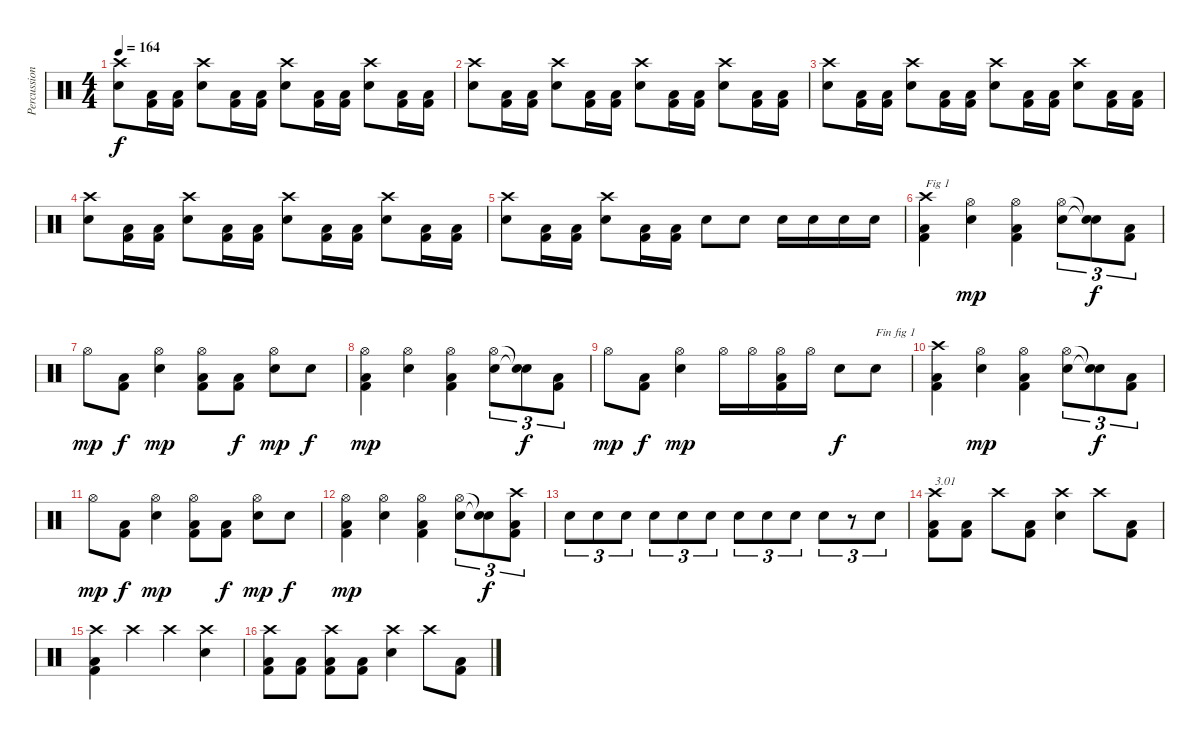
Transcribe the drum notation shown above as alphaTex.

\track ("Percussions" "Percussion") {instrument percussion}
\staff {score}
\articulation defaults
\ts (4 4)
\tempo 164
\clef neutral
\ks c
("Electric Snare (hit)" "Crash high (hit)").8{dy f} ("Kick (hit) 2" "Low Floor Tom (hit)").16 ("Kick (hit) 2" "Low Floor Tom (hit)").16 ("Electric Snare (hit)" "Crash high (hit)").8 ("Kick (hit) 2" "Low Floor Tom (hit)").16 ("Kick (hit) 2" "Low Floor Tom (hit)").16 ("Electric Snare (hit)" "Crash high (hit)").8 ("Kick (hit) 2" "Low Floor Tom (hit)").16 ("Kick (hit) 2" "Low Floor Tom (hit)").16 ("Electric Snare (hit)" "Crash high (hit)").8 ("Kick (hit) 2" "Low Floor Tom (hit)").16 ("Kick (hit) 2" "Low Floor Tom (hit)").16 |
("Electric Snare (hit)" "Crash high (hit)").8 ("Kick (hit) 2" "Low Floor Tom (hit)").16 ("Kick (hit) 2" "Low Floor Tom (hit)").16 ("Electric Snare (hit)" "Crash high (hit)").8 ("Kick (hit) 2" "Low Floor Tom (hit)").16 ("Kick (hit) 2" "Low Floor Tom (hit)").16 ("Electric Snare (hit)" "Crash high (hit)").8 ("Kick (hit) 2" "Low Floor Tom (hit)").16 ("Kick (hit) 2" "Low Floor Tom (hit)").16 ("Electric Snare (hit)" "Crash high (hit)").8 ("Kick (hit) 2" "Low Floor Tom (hit)").16 ("Kick (hit) 2" "Low Floor Tom (hit)").16 |
("Electric Snare (hit)" "Crash high (hit)").8 ("Kick (hit) 2" "Low Floor Tom (hit)").16 ("Kick (hit) 2" "Low Floor Tom (hit)").16 ("Electric Snare (hit)" "Crash high (hit)").8 ("Kick (hit) 2" "Low Floor Tom (hit)").16 ("Kick (hit) 2" "Low Floor Tom (hit)").16 ("Electric Snare (hit)" "Crash high (hit)").8 ("Kick (hit) 2" "Low Floor Tom (hit)").16 ("Kick (hit) 2" "Low Floor Tom (hit)").16 ("Electric Snare (hit)" "Crash high (hit)").8 ("Kick (hit) 2" "Low Floor Tom (hit)").16 ("Kick (hit) 2" "Low Floor Tom (hit)").16 |
("Electric Snare (hit)" "Crash high (hit)").8 ("Kick (hit) 2" "Low Floor Tom (hit)").16 ("Kick (hit) 2" "Low Floor Tom (hit)").16 ("Electric Snare (hit)" "Crash high (hit)").8 ("Kick (hit) 2" "Low Floor Tom (hit)").16 ("Kick (hit) 2" "Low Floor Tom (hit)").16 ("Electric Snare (hit)" "Crash high (hit)").8 ("Kick (hit) 2" "Low Floor Tom (hit)").16 ("Kick (hit) 2" "Low Floor Tom (hit)").16 ("Electric Snare (hit)" "Crash high (hit)").8 ("Kick (hit) 2" "Low Floor Tom (hit)").16 ("Kick (hit) 2" "Low Floor Tom (hit)").16 |
("Electric Snare (hit)" "Crash high (hit)").8 ("Kick (hit) 2" "Low Floor Tom (hit)").16 ("Kick (hit) 2" "Low Floor Tom (hit)").16 ("Electric Snare (hit)" "Crash high (hit)").8 ("Kick (hit) 2" "Low Floor Tom (hit)").16 ("Kick (hit) 2" "Low Floor Tom (hit)").16 "Electric Snare (hit)".8 "Electric Snare (hit)".8 "Electric Snare (hit)".16 "Electric Snare (hit)".16 "Electric Snare (hit)".16 "Electric Snare (hit)".16 |
("Kick (hit) 2" "Low Floor Tom (hit)" "Crash high (hit)").4{txt "Fig 1"} ("Electric Snare (hit)" "Hi-Hat (open)").4{dy mp} ("Kick (hit) 2" "Low Floor Tom (hit)" "Hi-Hat (open)").4 ("Electric Snare (hit)" "Hi-Hat (open)").8{tu (3 2)} ("Snare (hit)"{t} "Snare (hit)"{t}).8{tu (3 2) dy f} ("Kick (hit) 2" "Low Floor Tom (hit)").8{tu (3 2)} |
"Hi-Hat (open)".8{dy mp} ("Kick (hit) 2" "Low Floor Tom (hit)").8{dy f} ("Electric Snare (hit)" "Hi-Hat (open)").4{dy mp} ("Kick (hit) 2" "Low Floor Tom (hit)" "Hi-Hat (open)").8 ("Kick (hit) 2" "Low Floor Tom (hit)").8{dy f} ("Electric Snare (hit)" "Hi-Hat (open)").8{dy mp} "Electric Snare (hit)".8{dy f} |
("Kick (hit) 2" "Low Floor Tom (hit)" "Hi-Hat (open)").4{dy mp} ("Electric Snare (hit)" "Hi-Hat (open)").4 ("Kick (hit) 2" "Low Floor Tom (hit)" "Hi-Hat (open)").4 ("Electric Snare (hit)" "Hi-Hat (open)").8{tu (3 2)} ("Snare (hit)"{t} "Snare (hit)"{t}).8{tu (3 2) dy f} ("Kick (hit) 2" "Low Floor Tom (hit)").8{tu (3 2)} |
"Hi-Hat (open)".8{dy mp} ("Kick (hit) 2" "Low Floor Tom (hit)").8{dy f} ("Electric Snare (hit)" "Hi-Hat (open)").4{dy mp} "Hi-Hat (open)".16 "Hi-Hat (open)".16 ("Kick (hit) 2" "Low Floor Tom (hit)" "Hi-Hat (open)").16 "Hi-Hat (open)".16 "Electric Snare (hit)".8{dy f} "Electric Snare (hit)".8{txt "Fin fig 1"} |
("Kick (hit) 2" "Low Floor Tom (hit)" "Crash high (hit)").4 ("Electric Snare (hit)" "Hi-Hat (open)").4{dy mp} ("Kick (hit) 2" "Low Floor Tom (hit)" "Hi-Hat (open)").4 ("Electric Snare (hit)" "Hi-Hat (open)").8{tu (3 2)} ("Snare (hit)"{t} "Snare (hit)"{t}).8{tu (3 2) dy f} ("Kick (hit) 2" "Low Floor Tom (hit)").8{tu (3 2)} |
"Hi-Hat (open)".8{dy mp} ("Kick (hit) 2" "Low Floor Tom (hit)").8{dy f} ("Electric Snare (hit)" "Hi-Hat (open)").4{dy mp} ("Kick (hit) 2" "Low Floor Tom (hit)" "Hi-Hat (open)").8 ("Kick (hit) 2" "Low Floor Tom (hit)").8{dy f} ("Electric Snare (hit)" "Hi-Hat (open)").8{dy mp} "Electric Snare (hit)".8{dy f} |
("Kick (hit) 2" "Low Floor Tom (hit)" "Hi-Hat (open)").4{dy mp} ("Electric Snare (hit)" "Hi-Hat (open)").4 ("Kick (hit) 2" "Low Floor Tom (hit)" "Hi-Hat (open)").4 ("Electric Snare (hit)" "Hi-Hat (open)").8{tu (3 2)} ("Snare (hit)"{t} "Snare (hit)"{t}).8{tu (3 2) dy f} ("Kick (hit) 2" "Low Floor Tom (hit)" "Crash high (hit)").8{tu (3 2)} |
"Electric Snare (hit)".8{tu (3 2)} "Electric Snare (hit)".8{tu (3 2)} "Electric Snare (hit)".8{tu (3 2)} "Electric Snare (hit)".8{tu (3 2)} "Electric Snare (hit)".8{tu (3 2)} "Electric Snare (hit)".8{tu (3 2)} "Electric Snare (hit)".8{tu (3 2)} "Electric Snare (hit)".8{tu (3 2)} "Electric Snare (hit)".8{tu (3 2)} "Electric Snare (hit)".8{tu (3 2)} r.8{tu (3 2)} "Electric Snare (hit)".8{tu (3 2)} |
("Kick (hit) 2" "Low Floor Tom (hit)" "Crash high (hit)").8{txt "3.01"} ("Kick (hit) 2" "Low Floor Tom (hit)").8 "Crash high (hit)".8 ("Kick (hit) 2" "Low Floor Tom (hit)").8 ("Electric Snare (hit)" "Crash high (hit)").4 "Crash high (hit)".8 ("Kick (hit) 2" "Low Floor Tom (hit)").8 |
("Kick (hit) 2" "Low Floor Tom (hit)" "Crash high (hit)").4 "Crash high (hit)".4 "Crash high (hit)".4 ("Electric Snare (hit)" "Crash high (hit)").4 |
("Kick (hit) 2" "Low Floor Tom (hit)" "Crash high (hit)").8 ("Kick (hit) 2" "Low Floor Tom (hit)").8 ("Kick (hit) 2" "Low Floor Tom (hit)" "Crash high (hit)").8 ("Kick (hit) 2" "Low Floor Tom (hit)").8 ("Electric Snare (hit)" "Crash high (hit)").4 "Crash high (hit)".8 ("Kick (hit) 2" "Low Floor Tom (hit)").8
